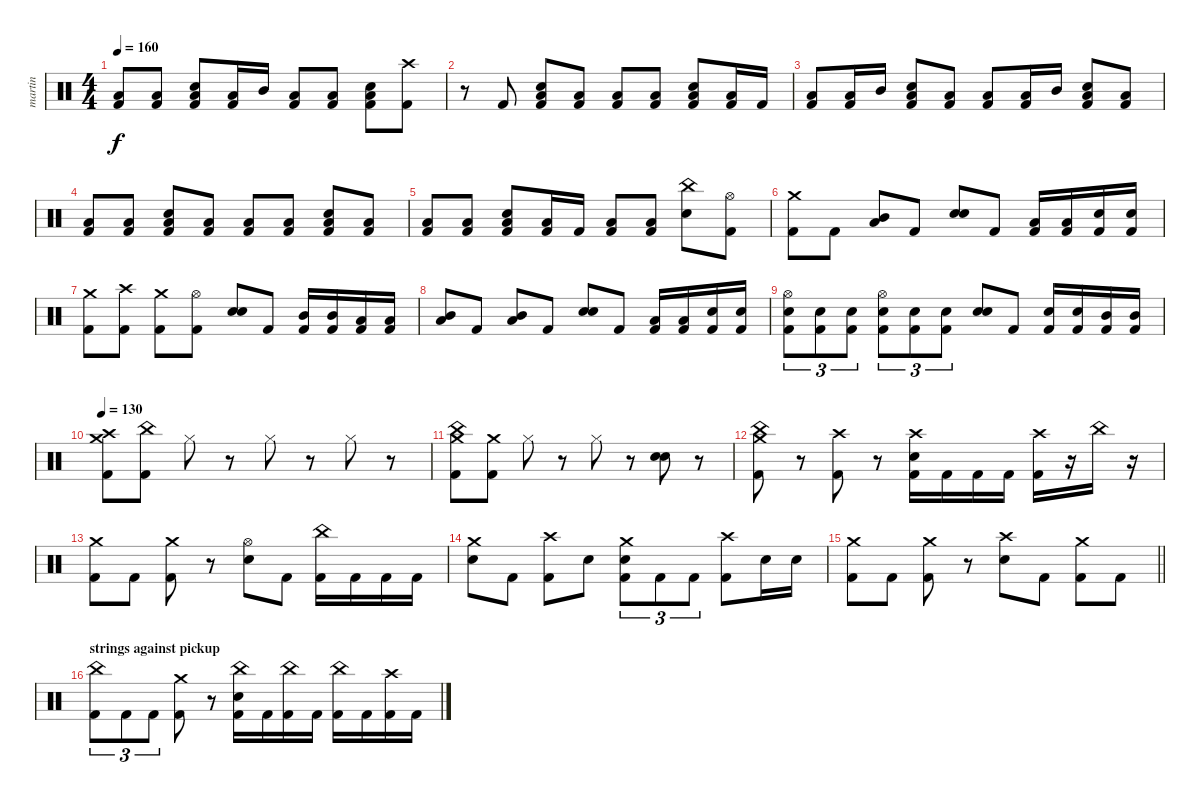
\track ("martin" "martin") {instrument percussion}
\staff {score}
\articulation defaults
\ts (4 4)
\tempo 160
\clef neutral
\ks c
("Low Floor Tom (hit)" "Kick (hit) 2").8{dy f} ("Low Floor Tom (hit)" "Kick (hit) 2").8 ("Electric Snare (hit)" "Low Floor Tom (hit)" "Kick (hit) 2").8 ("Low Floor Tom (hit)" "Kick (hit) 2").16 "Mid Tom (hit)".16 ("Low Floor Tom (hit)" "Kick (hit) 2").8 ("Low Floor Tom (hit)" "Kick (hit) 2").8 ("Electric Snare (hit)" "Low Floor Tom (hit)" "Kick (hit) 2").8 ("Crash high (hit)" "Kick (hit) 2").8 |
r.8 "Kick (hit) 2".8 ("Electric Snare (hit)" "Low Floor Tom (hit)" "Kick (hit) 2").8 ("Low Floor Tom (hit)" "Kick (hit) 2").8 ("Low Floor Tom (hit)" "Kick (hit) 2").8 ("Low Floor Tom (hit)" "Kick (hit) 2").8 ("Electric Snare (hit)" "Low Floor Tom (hit)" "Kick (hit) 2").8 ("Low Floor Tom (hit)" "Kick (hit) 2").16 "Kick (hit) 2".16 |
("Low Floor Tom (hit)" "Kick (hit) 2").8 ("Low Floor Tom (hit)" "Kick (hit) 2").16 "Mid Tom (hit)".16 ("Electric Snare (hit)" "Low Floor Tom (hit)" "Kick (hit) 2").8 ("Low Floor Tom (hit)" "Kick (hit) 2").8 ("Low Floor Tom (hit)" "Kick (hit) 2").8 ("Low Floor Tom (hit)" "Kick (hit) 2").16 "Mid Tom (hit)".16 ("Electric Snare (hit)" "Low Floor Tom (hit)" "Kick (hit) 2").8 ("Low Floor Tom (hit)" "Kick (hit) 2").8 |
("Low Floor Tom (hit)" "Kick (hit) 2").8 ("Low Floor Tom (hit)" "Kick (hit) 2").8 ("Electric Snare (hit)" "Low Floor Tom (hit)" "Kick (hit) 2").8 ("Low Floor Tom (hit)" "Kick (hit) 2").8 ("Low Floor Tom (hit)" "Kick (hit) 2").8 ("Low Floor Tom (hit)" "Kick (hit) 2").8 ("Electric Snare (hit)" "Low Floor Tom (hit)" "Kick (hit) 2").8 ("Low Floor Tom (hit)" "Kick (hit) 2").8 |
("Low Floor Tom (hit)" "Kick (hit) 2").8 ("Low Floor Tom (hit)" "Kick (hit) 2").8 ("Electric Snare (hit)" "Low Floor Tom (hit)" "Kick (hit) 2").8 ("Low Floor Tom (hit)" "Kick (hit) 2").16 "Kick (hit) 2".16 ("Low Floor Tom (hit)" "Kick (hit) 2").8 ("Low Floor Tom (hit)" "Kick (hit) 2").8 ("China (hit)" "Electric Snare (hit)").8 ("Hi-Hat (open)" "Kick (hit) 2").8 |
("Crash medium (hit)" "Kick (hit) 2").8{bd 120} "Kick (hit) 2".8 ("Low Floor Tom (hit)" "Mid Tom (hit)").8{bd 120} "Kick (hit) 2".8 ("Electric Snare (hit)" "Electric Snare (hit)").8{bd 240} "Kick (hit) 2".8 ("Low Floor Tom (hit)" "Kick (hit) 2").16 ("Low Floor Tom (hit)" "Kick (hit) 2").16 ("Electric Snare (hit)" "Kick (hit) 2").16 ("Electric Snare (hit)" "Kick (hit) 2").16 |
("Crash medium (hit)" "Kick (hit) 2").8 ("Crash high (hit)" "Kick (hit) 2").8 ("Crash medium (hit)" "Kick (hit) 2").8 ("Hi-Hat (open)" "Kick (hit) 2").8 ("Electric Snare (hit)" "Electric Snare (hit)").8 "Kick (hit) 2".8 ("Mid Tom (hit)" "Kick (hit) 2").16 ("Mid Tom (hit)" "Kick (hit) 2").16 ("Low Floor Tom (hit)" "Kick (hit) 2").16 ("Low Floor Tom (hit)" "Kick (hit) 2").16 |
("Low Floor Tom (hit)" "Mid Tom (hit)").8{bd 120} "Kick (hit) 2".8 ("Low Floor Tom (hit)" "Mid Tom (hit)").8{bd 120} "Kick (hit) 2".8 ("Electric Snare (hit)" "Electric Snare (hit)").8{bd 240} "Kick (hit) 2".8 ("Low Floor Tom (hit)" "Kick (hit) 2").16 ("Low Floor Tom (hit)" "Kick (hit) 2").16 ("Electric Snare (hit)" "Kick (hit) 2").16 ("Electric Snare (hit)" "Kick (hit) 2").16 |
("Hi-Hat (open)" "Electric Snare (hit)" "Kick (hit) 2").8{tu (3 2)} ("Electric Snare (hit)" "Kick (hit) 2").8{tu (3 2)} ("Electric Snare (hit)" "Kick (hit) 2").8{tu (3 2)} ("Hi-Hat (open)" "Electric Snare (hit)" "Kick (hit) 2").8{tu (3 2)} ("Electric Snare (hit)" "Kick (hit) 2").8{tu (3 2)} ("Electric Snare (hit)" "Kick (hit) 2").8{tu (3 2)} ("Electric Snare (hit)" "Electric Snare (hit)").8{bd 240} "Kick (hit) 2".8 ("Electric Snare (hit)" "Kick (hit) 2").16 ("Electric Snare (hit)" "Kick (hit) 2").16 ("Mid Tom (hit)" "Kick (hit) 2").16 ("Mid Tom (hit)" "Kick (hit) 2").16 |
\tempo 130
("Crash high (hit)" "Crash medium (hit)" "Kick (hit) 2").8 ("China (hit)" "Kick (hit) 2").8 "Hi-Hat (closed)".8 r.8 "Hi-Hat (closed)".8 r.8 "Hi-Hat (closed)".8 r.8 |
("China (hit)" "Crash medium (hit)" "Kick (hit) 2").8 ("Crash medium (hit)" "Kick (hit) 2").8 "Hi-Hat (closed)".8 r.8 "Hi-Hat (closed)".8 r.8 ("Electric Snare (hit)" "Electric Snare (hit)").8{bd 240} r.8 |
("Crash medium (hit)" "China (hit)" "Kick (hit) 2").8 r.8 ("Crash high (hit)" "Kick (hit) 2").8 r.8 ("Crash high (hit)" "Electric Snare (hit)" "Kick (hit) 2").16 "Kick (hit) 2".16 "Kick (hit) 2".16 "Kick (hit) 2".16 ("Crash high (hit)" "Kick (hit) 2").16 r.16 "China (hit)".16 r.16 |
("Crash medium (hit)" "Kick (hit) 2").8 "Kick (hit) 2".8 ("Crash medium (hit)" "Kick (hit) 2").8 r.8 ("Hi-Hat (open)" "Electric Snare (hit)").8 "Kick (hit) 2".8 ("China (hit)" "Kick (hit) 2").16 "Kick (hit) 2".16 "Kick (hit) 2".16 "Kick (hit) 2".16 |
("Crash medium (hit)" "Electric Snare (hit)").8 "Kick (hit) 2".8 ("Crash high (hit)" "Kick (hit) 2").8 "Electric Snare (hit)".8 ("Crash medium (hit)" "Electric Snare (hit)" "Kick (hit) 2").8{tu (3 2)} "Kick (hit) 2".8{tu (3 2)} "Kick (hit) 2".8{tu (3 2)} ("Crash high (hit)" "Kick (hit) 2").8 "Electric Snare (hit)".16 "Electric Snare (hit)".16 |
\barLineRight lightlight
("Crash medium (hit)" "Kick (hit) 2").8 "Kick (hit) 2".8 ("Crash medium (hit)" "Kick (hit) 2").8 r.8 ("Crash high (hit)" "Electric Snare (hit)").8 "Kick (hit) 2".8 ("Crash medium (hit)" "Kick (hit) 2").8 "Kick (hit) 2".8 |
\section ("" "strings against pickup")
("China (hit)" "Kick (hit) 2").8{tu (3 2)} "Kick (hit) 2".8{tu (3 2)} "Kick (hit) 2".8{tu (3 2)} ("Crash medium (hit)" "Kick (hit) 2").8 r.8 ("China (hit)" "Electric Snare (hit)" "Kick (hit) 2").16 "Kick (hit) 2".16 ("China (hit)" "Kick (hit) 2").16 "Kick (hit) 2".16 ("China (hit)" "Kick (hit) 2").16 "Kick (hit) 2".16 ("Crash high (hit)" "Kick (hit) 2").16 "Kick (hit) 2".16
